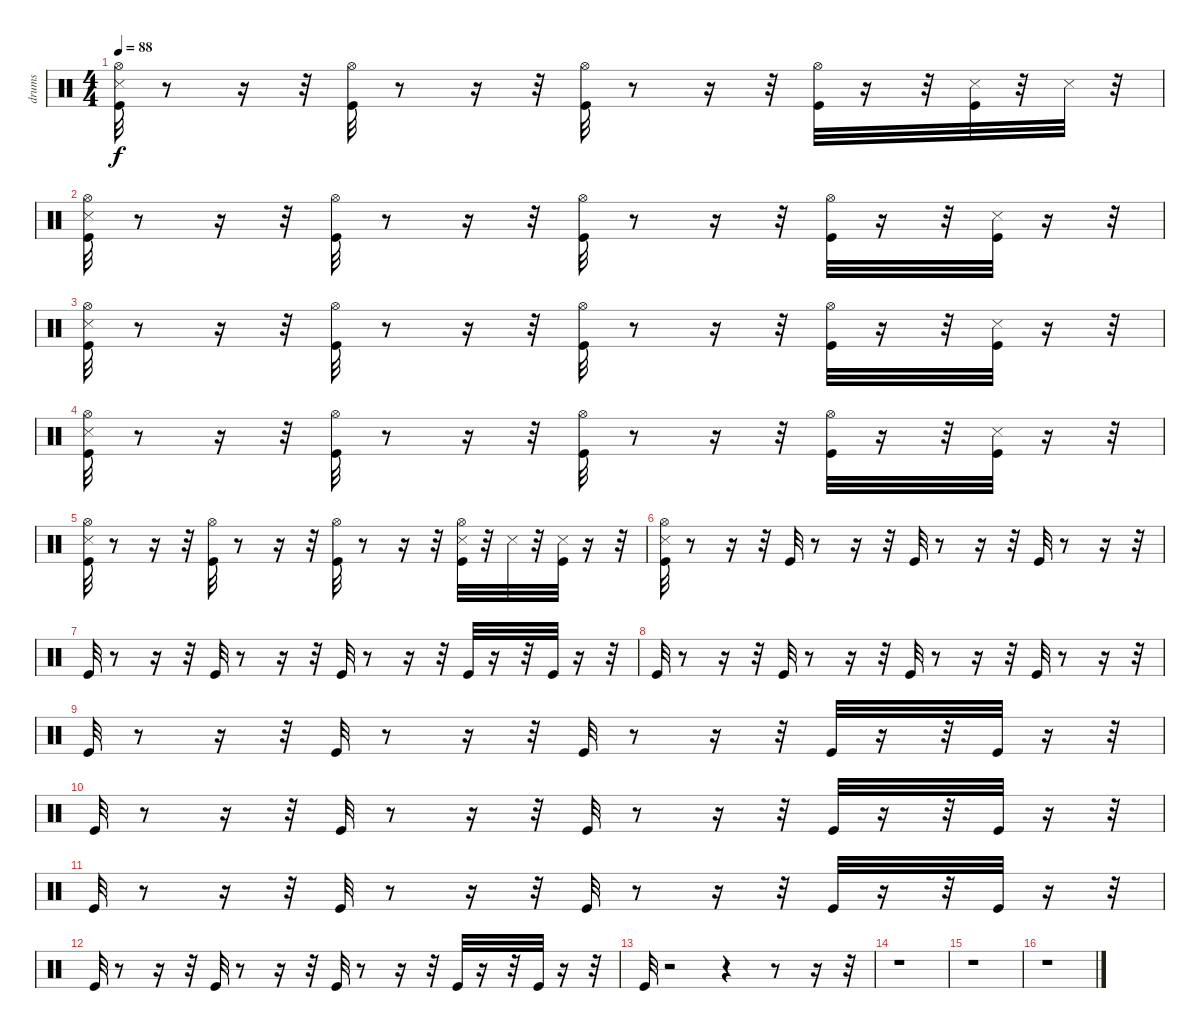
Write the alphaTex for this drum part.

\track ("drums" "drums") {instrument percussion}
\staff {score}
\articulation defaults
\ts (4 4)
\tempo 88
\clef neutral
\ks c
("Kick (hit)" "Snare (side stick) 3" "Hi-Hat (open)").32{dy f} r.8 r.16 r.32 ("Kick (hit)" "Hi-Hat (open)").32 r.8 r.16 r.32 ("Kick (hit)" "Hi-Hat (open)").32 r.8 r.16 r.32 ("Kick (hit)" "Hi-Hat (open)").32 r.16 r.32 ("Kick (hit)" "Snare (side stick) 3").32 r.32 "Snare (side stick) 3".32 r.32 |
("Snare (side stick) 3" "Hi-Hat (open)" "Kick (hit)").32 r.8 r.16 r.32 ("Hi-Hat (open)" "Kick (hit)").32 r.8 r.16 r.32 ("Hi-Hat (open)" "Kick (hit)").32 r.8 r.16 r.32 ("Hi-Hat (open)" "Kick (hit)").32 r.16 r.32 ("Kick (hit)" "Snare (side stick) 3").32 r.16 r.32 |
("Snare (side stick) 3" "Hi-Hat (open)" "Kick (hit)").32 r.8 r.16 r.32 ("Hi-Hat (open)" "Kick (hit)").32 r.8 r.16 r.32 ("Hi-Hat (open)" "Kick (hit)").32 r.8 r.16 r.32 ("Hi-Hat (open)" "Kick (hit)").32 r.16 r.32 ("Kick (hit)" "Snare (side stick) 3").32 r.16 r.32 |
("Snare (side stick) 3" "Hi-Hat (open)" "Kick (hit)").32 r.8 r.16 r.32 ("Hi-Hat (open)" "Kick (hit)").32 r.8 r.16 r.32 ("Hi-Hat (open)" "Kick (hit)").32 r.8 r.16 r.32 ("Hi-Hat (open)" "Kick (hit)").32 r.16 r.32 ("Snare (side stick) 3" "Kick (hit)").32 r.16 r.32 |
("Snare (side stick) 3" "Hi-Hat (open)" "Kick (hit)").32 r.8 r.16 r.32 ("Hi-Hat (open)" "Kick (hit)").32 r.8 r.16 r.32 ("Hi-Hat (open)" "Kick (hit)").32 r.8 r.16 r.32 ("Snare (side stick) 3" "Hi-Hat (open)" "Kick (hit)").32 r.32 "Snare (side stick) 3".32 r.32 ("Kick (hit)" "Snare (side stick) 3").32 r.16 r.32 |
("Snare (side stick) 3" "Kick (hit)" "Hi-Hat (open)").32 r.8 r.16 r.32 "Kick (hit)".32 r.8 r.16 r.32 "Kick (hit)".32 r.8 r.16 r.32 "Kick (hit)".32 r.8 r.16 r.32 |
"Kick (hit)".32 r.8 r.16 r.32 "Kick (hit)".32 r.8 r.16 r.32 "Kick (hit)".32 r.8 r.16 r.32 "Kick (hit)".32 r.16 r.32 "Kick (hit)".32 r.16 r.32 |
"Kick (hit)".32 r.8 r.16 r.32 "Kick (hit)".32 r.8 r.16 r.32 "Kick (hit)".32 r.8 r.16 r.32 "Kick (hit)".32 r.8 r.16 r.32 |
"Kick (hit)".32 r.8 r.16 r.32 "Kick (hit)".32 r.8 r.16 r.32 "Kick (hit)".32 r.8 r.16 r.32 "Kick (hit)".32 r.16 r.32 "Kick (hit)".32 r.16 r.32 |
"Kick (hit)".32 r.8 r.16 r.32 "Kick (hit)".32 r.8 r.16 r.32 "Kick (hit)".32 r.8 r.16 r.32 "Kick (hit)".32 r.16 r.32 "Kick (hit)".32 r.16 r.32 |
"Kick (hit)".32 r.8 r.16 r.32 "Kick (hit)".32 r.8 r.16 r.32 "Kick (hit)".32 r.8 r.16 r.32 "Kick (hit)".32 r.16 r.32 "Kick (hit)".32 r.16 r.32 |
"Kick (hit)".32 r.8 r.16 r.32 "Kick (hit)".32 r.8 r.16 r.32 "Kick (hit)".32 r.8 r.16 r.32 "Kick (hit)".32 r.16 r.32 "Kick (hit)".32 r.16 r.32 |
"Kick (hit)".32 r.2 r.4 r.8 r.16 r.32 |
r.1 |
r.1 |
r.1
